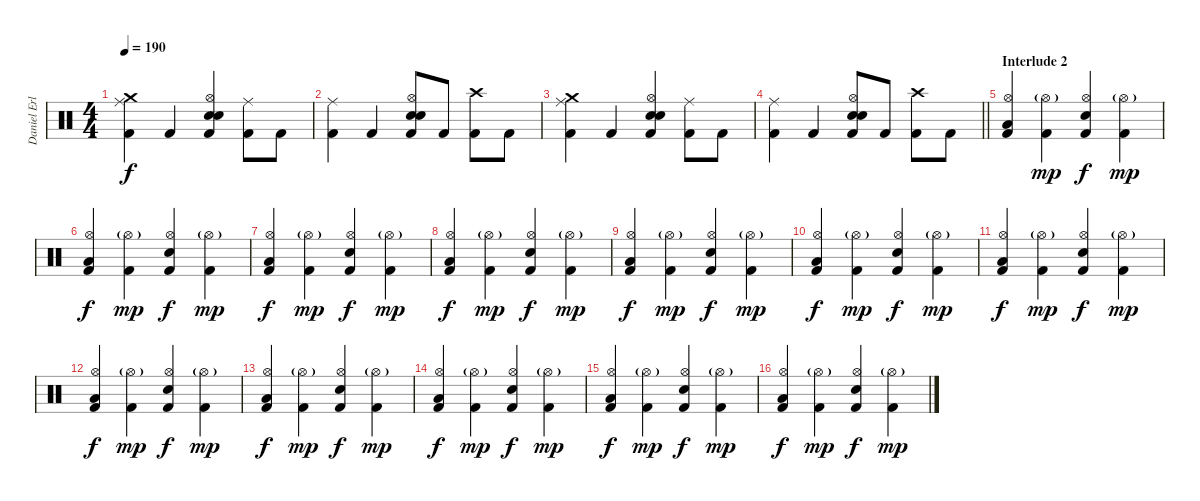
\track ("Daniel Erlandsson" "Daniel Erl") {instrument percussion}
\staff {score}
\articulation defaults
\ts (4 4)
\tempo 190
\clef neutral
\ks c
("Crash medium (hit)" "Ride (middle)" "Kick (hit) 2").4{dy f} "Kick (hit) 2".4 ("Hi-Hat (open)" "Snare (hit) 2" "Electric Snare (hit)" "Kick (hit) 2").4 ("Ride (middle)" "Kick (hit) 2").8 "Kick (hit) 2".8 |
("Ride (middle)" "Kick (hit) 2").4 "Kick (hit) 2".4 ("Hi-Hat (open)" "Snare (hit) 2" "Electric Snare (hit)" "Kick (hit) 2").8 "Kick (hit) 2".8 ("Crash high (hit)" "Kick (hit) 2").8 "Kick (hit) 2".8 |
("Crash medium (hit)" "Ride (middle)" "Kick (hit) 2").4 "Kick (hit) 2".4 ("Hi-Hat (open)" "Snare (hit) 2" "Electric Snare (hit)" "Kick (hit) 2").4 ("Ride (middle)" "Kick (hit) 2").8 "Kick (hit) 2".8 |
\barLineRight lightlight
("Ride (middle)" "Kick (hit) 2").4 "Kick (hit) 2".4 ("Hi-Hat (open)" "Snare (hit) 2" "Electric Snare (hit)" "Kick (hit) 2").8 "Kick (hit) 2".8 ("Crash high (hit)" "Kick (hit) 2").8 "Kick (hit) 2".8 |
\section ("" "Interlude 2")
("Hi-Hat (open)" "Low Floor Tom (hit)" "Kick (hit) 2").4 ("Hi-Hat (open)"{g} "Kick (hit) 2").4{dy mp} ("Hi-Hat (open)" "Snare (hit) 2" "Kick (hit) 2").4{dy f} ("Hi-Hat (open)"{g} "Kick (hit) 2").4{dy mp} |
("Hi-Hat (open)" "Low Floor Tom (hit)" "Kick (hit) 2").4{dy f} ("Hi-Hat (open)"{g} "Kick (hit) 2").4{dy mp} ("Hi-Hat (open)" "Snare (hit) 2" "Kick (hit) 2").4{dy f} ("Hi-Hat (open)"{g} "Kick (hit) 2").4{dy mp} |
("Hi-Hat (open)" "Low Floor Tom (hit)" "Kick (hit) 2").4{dy f} ("Hi-Hat (open)"{g} "Kick (hit) 2").4{dy mp} ("Hi-Hat (open)" "Snare (hit) 2" "Kick (hit) 2").4{dy f} ("Hi-Hat (open)"{g} "Kick (hit) 2").4{dy mp} |
("Hi-Hat (open)" "Low Floor Tom (hit)" "Kick (hit) 2").4{dy f} ("Hi-Hat (open)"{g} "Kick (hit) 2").4{dy mp} ("Hi-Hat (open)" "Snare (hit) 2" "Kick (hit) 2").4{dy f} ("Hi-Hat (open)"{g} "Kick (hit) 2").4{dy mp} |
("Hi-Hat (open)" "Low Floor Tom (hit)" "Kick (hit) 2").4{dy f} ("Hi-Hat (open)"{g} "Kick (hit) 2").4{dy mp} ("Hi-Hat (open)" "Snare (hit) 2" "Kick (hit) 2").4{dy f} ("Hi-Hat (open)"{g} "Kick (hit) 2").4{dy mp} |
("Hi-Hat (open)" "Low Floor Tom (hit)" "Kick (hit) 2").4{dy f} ("Hi-Hat (open)"{g} "Kick (hit) 2").4{dy mp} ("Hi-Hat (open)" "Snare (hit) 2" "Kick (hit) 2").4{dy f} ("Hi-Hat (open)"{g} "Kick (hit) 2").4{dy mp} |
("Hi-Hat (open)" "Low Floor Tom (hit)" "Kick (hit) 2").4{dy f} ("Hi-Hat (open)"{g} "Kick (hit) 2").4{dy mp} ("Hi-Hat (open)" "Snare (hit) 2" "Kick (hit) 2").4{dy f} ("Hi-Hat (open)"{g} "Kick (hit) 2").4{dy mp} |
("Hi-Hat (open)" "Low Floor Tom (hit)" "Kick (hit) 2").4{dy f} ("Hi-Hat (open)"{g} "Kick (hit) 2").4{dy mp} ("Hi-Hat (open)" "Snare (hit) 2" "Kick (hit) 2").4{dy f} ("Hi-Hat (open)"{g} "Kick (hit) 2").4{dy mp} |
("Hi-Hat (open)" "Low Floor Tom (hit)" "Kick (hit) 2").4{dy f} ("Hi-Hat (open)"{g} "Kick (hit) 2").4{dy mp} ("Hi-Hat (open)" "Snare (hit) 2" "Kick (hit) 2").4{dy f} ("Hi-Hat (open)"{g} "Kick (hit) 2").4{dy mp} |
("Hi-Hat (open)" "Low Floor Tom (hit)" "Kick (hit) 2").4{dy f} ("Hi-Hat (open)"{g} "Kick (hit) 2").4{dy mp} ("Hi-Hat (open)" "Snare (hit) 2" "Kick (hit) 2").4{dy f} ("Hi-Hat (open)"{g} "Kick (hit) 2").4{dy mp} |
("Hi-Hat (open)" "Low Floor Tom (hit)" "Kick (hit) 2").4{dy f} ("Hi-Hat (open)"{g} "Kick (hit) 2").4{dy mp} ("Hi-Hat (open)" "Snare (hit) 2" "Kick (hit) 2").4{dy f} ("Hi-Hat (open)"{g} "Kick (hit) 2").4{dy mp} |
("Hi-Hat (open)" "Low Floor Tom (hit)" "Kick (hit) 2").4{dy f} ("Hi-Hat (open)"{g} "Kick (hit) 2").4{dy mp} ("Hi-Hat (open)" "Snare (hit) 2" "Kick (hit) 2").4{dy f} ("Hi-Hat (open)"{g} "Kick (hit) 2").4{dy mp}
